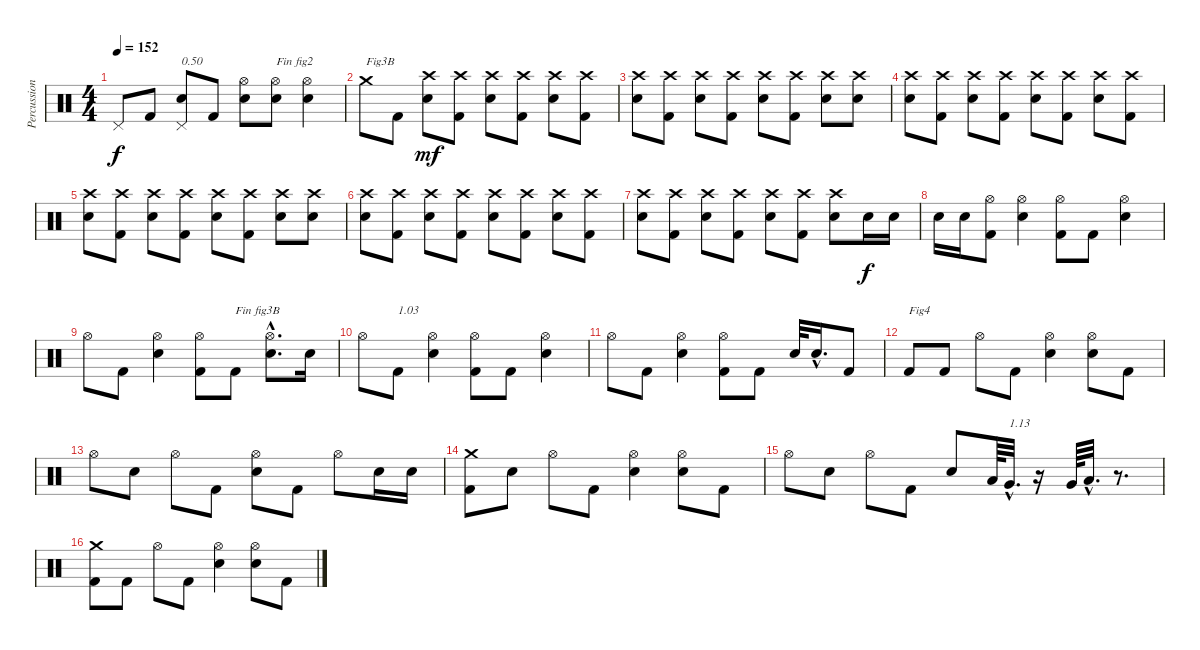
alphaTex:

\track ("Percussions" "Percussion") {instrument percussion}
\staff {score}
\articulation defaults
\ts (4 4)
\tempo 152
\clef neutral
\ks c "Pedal Hi-Hat (hit)".8{dy f} "Kick (hit) 2".8
("Electric Snare (hit)" "Pedal Hi-Hat (hit)").8{txt "0.50"} "Kick (hit) 2".8 ("Electric Snare (hit)" "Hi-Hat (open)").8 ("Electric Snare (hit)" "Hi-Hat (open)").8{txt "Fin fig2"} ("Electric Snare (hit)" "Hi-Hat (open)").4 |
"Crash medium (hit)".8{txt "Fig3B"} "Kick (hit) 2".8 ("Electric Snare (hit)" "Crash high (hit)").8{dy mf} ("Kick (hit) 2" "Crash high (hit)").8 ("Electric Snare (hit)" "Crash high (hit)").8 ("Kick (hit) 2" "Crash high (hit)").8 ("Electric Snare (hit)" "Crash high (hit)").8 ("Kick (hit) 2" "Crash high (hit)").8 |
("Electric Snare (hit)" "Crash high (hit)").8 ("Kick (hit) 2" "Crash high (hit)").8 ("Electric Snare (hit)" "Crash high (hit)").8 ("Kick (hit) 2" "Crash high (hit)").8 ("Electric Snare (hit)" "Crash high (hit)").8 ("Kick (hit) 2" "Crash high (hit)").8 ("Electric Snare (hit)" "Crash high (hit)").8 ("Electric Snare (hit)" "Crash high (hit)").8 |
("Electric Snare (hit)" "Crash high (hit)").8 ("Kick (hit) 2" "Crash high (hit)").8 ("Electric Snare (hit)" "Crash high (hit)").8 ("Kick (hit) 2" "Crash high (hit)").8 ("Electric Snare (hit)" "Crash high (hit)").8 ("Kick (hit) 2" "Crash high (hit)").8 ("Electric Snare (hit)" "Crash high (hit)").8 ("Kick (hit) 2" "Crash high (hit)").8 |
("Electric Snare (hit)" "Crash high (hit)").8 ("Kick (hit) 2" "Crash high (hit)").8 ("Electric Snare (hit)" "Crash high (hit)").8 ("Kick (hit) 2" "Crash high (hit)").8 ("Electric Snare (hit)" "Crash high (hit)").8 ("Kick (hit) 2" "Crash high (hit)").8 ("Electric Snare (hit)" "Crash high (hit)").8 ("Electric Snare (hit)" "Crash high (hit)").8 |
("Electric Snare (hit)" "Crash high (hit)").8 ("Kick (hit) 2" "Crash high (hit)").8 ("Electric Snare (hit)" "Crash high (hit)").8 ("Kick (hit) 2" "Crash high (hit)").8 ("Electric Snare (hit)" "Crash high (hit)").8 ("Kick (hit) 2" "Crash high (hit)").8 ("Electric Snare (hit)" "Crash high (hit)").8 ("Kick (hit) 2" "Crash high (hit)").8 |
("Electric Snare (hit)" "Crash high (hit)").8 ("Kick (hit) 2" "Crash high (hit)").8 ("Electric Snare (hit)" "Crash high (hit)").8 ("Kick (hit) 2" "Crash high (hit)").8 ("Electric Snare (hit)" "Crash high (hit)").8 ("Kick (hit) 2" "Crash high (hit)").8 ("Electric Snare (hit)" "Crash high (hit)").8 "Electric Snare (hit)".16{dy f} "Electric Snare (hit)".16 |
"Electric Snare (hit)".16 "Electric Snare (hit)".16 ("Kick (hit) 2" "Hi-Hat (open)").8 ("Electric Snare (hit)" "Hi-Hat (open)").4 ("Kick (hit) 2" "Hi-Hat (open)").8 "Kick (hit) 2".8 ("Electric Snare (hit)" "Hi-Hat (open)").4 |
"Hi-Hat (open)".8 "Kick (hit) 2".8 ("Electric Snare (hit)" "Hi-Hat (open)").4 ("Kick (hit) 2" "Hi-Hat (open)").8 "Kick (hit) 2".8{txt "Fin fig3B"} ("Electric Snare (hit)"{hac} "Hi-Hat (open)"{hac}).8{d} "Electric Snare (hit)".16 |
"Hi-Hat (open)".8 "Kick (hit) 2".8{txt "1.03"} ("Electric Snare (hit)" "Hi-Hat (open)").4 ("Kick (hit) 2" "Hi-Hat (open)").8 "Kick (hit) 2".8 ("Electric Snare (hit)" "Hi-Hat (open)").4 |
"Hi-Hat (open)".8 "Kick (hit) 2".8 ("Electric Snare (hit)" "Hi-Hat (open)").4 ("Kick (hit) 2" "Hi-Hat (open)").8 "Kick (hit) 2".8 "Electric Snare (hit)".32 "Electric Snare (hit)"{hac}.16{d} "Kick (hit) 2".8 |
"Kick (hit) 2".8{txt "Fig4"} "Kick (hit) 2".8 "Hi-Hat (open)".8 "Kick (hit) 2".8 ("Electric Snare (hit)" "Hi-Hat (open)").4 ("Electric Snare (hit)" "Hi-Hat (open)").8 "Kick (hit) 2".8 |
"Hi-Hat (open)".8 "Electric Snare (hit)".8 "Hi-Hat (open)".8 "Kick (hit) 2".8 ("Electric Snare (hit)" "Hi-Hat (open)").8 "Kick (hit) 2".8 "Hi-Hat (open)".8 "Electric Snare (hit)".16 "Electric Snare (hit)".16 |
("Kick (hit) 2" "Crash medium (hit)").8 "Electric Snare (hit)".8 "Hi-Hat (open)".8 "Kick (hit) 2".8 ("Electric Snare (hit)" "Hi-Hat (open)").4 ("Electric Snare (hit)" "Hi-Hat (open)").8 "Kick (hit) 2".8 |
"Hi-Hat (open)".8 "Electric Snare (hit)".8 "Hi-Hat (open)".8 "Kick (hit) 2".8 "Electric Snare (hit)".8 "Low Tom (hit)".64 "Very Low Tom (hit)"{hac}.32{d txt "1.13"} r.16 "Very Low Tom (hit)".64 "Low Floor Tom (hit)"{hac}.32{d} r.8{d} |
("Kick (hit) 2" "Crash medium (hit)").8 "Kick (hit) 2".8 "Hi-Hat (open)".8 "Kick (hit) 2".8 ("Electric Snare (hit)" "Hi-Hat (open)").4 ("Electric Snare (hit)" "Hi-Hat (open)").8 "Kick (hit) 2".8
